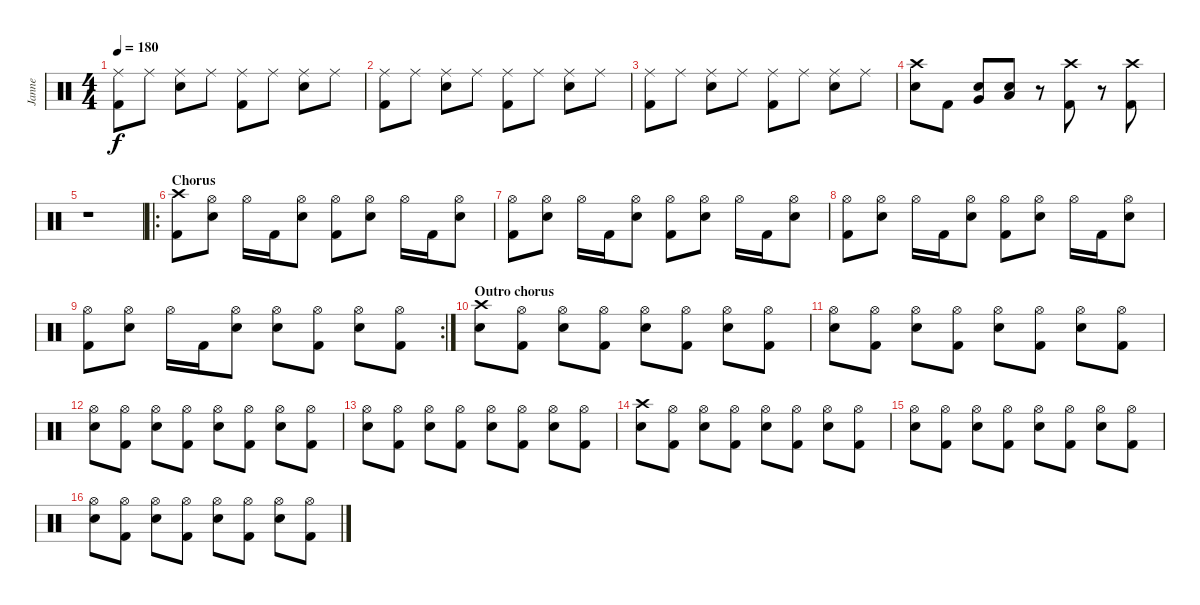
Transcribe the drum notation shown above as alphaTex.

\track ("Janne" "Janne") {instrument percussion}
\staff {score}
\articulation defaults
\ts (4 4)
\tempo 180
\clef neutral
\ks c
("Ride (middle)" "Kick (hit) 2").8{dy f} "Ride (middle)".8 ("Ride (middle)" "Electric Snare (hit)").8 "Ride (middle)".8 ("Ride (middle)" "Kick (hit) 2").8 "Ride (middle)".8 ("Ride (middle)" "Electric Snare (hit)").8 "Ride (middle)".8 |
("Ride (middle)" "Kick (hit) 2").8 "Ride (middle)".8 ("Ride (middle)" "Electric Snare (hit)").8 "Ride (middle)".8 ("Ride (middle)" "Kick (hit) 2").8 "Ride (middle)".8 ("Ride (middle)" "Electric Snare (hit)").8 "Ride (middle)".8 |
("Ride (middle)" "Kick (hit) 2").8 "Ride (middle)".8 ("Ride (middle)" "Electric Snare (hit)").8 "Ride (middle)".8 ("Ride (middle)" "Kick (hit) 2").8 "Ride (middle)".8 ("Ride (middle)" "Electric Snare (hit)").8 "Ride (middle)".8 |
("Crash high (hit)" "Electric Snare (hit)").8 "Kick (hit) 2".8 ("Very Low Tom (hit)" "Electric Snare (hit)").8 ("Low Floor Tom (hit)" "Electric Snare (hit)").8 r.8 ("Crash high (hit)" "Kick (hit) 2").8 r.8 ("Crash high (hit)" "Kick (hit) 2").8 |
r.1 |
\ro
\section ("" "Chorus")
("Crash high (hit)" "Kick (hit) 2").8 ("Hi-Hat (open)" "Electric Snare (hit)").8 "Hi-Hat (open)".16 "Kick (hit) 2".16 ("Hi-Hat (open)" "Electric Snare (hit)").8 ("Hi-Hat (open)" "Kick (hit) 2").8 ("Hi-Hat (open)" "Electric Snare (hit)").8 "Hi-Hat (open)".16 "Kick (hit) 2".16 ("Hi-Hat (open)" "Electric Snare (hit)").8 |
("Hi-Hat (open)" "Kick (hit) 2").8 ("Hi-Hat (open)" "Electric Snare (hit)").8 "Hi-Hat (open)".16 "Kick (hit) 2".16 ("Hi-Hat (open)" "Electric Snare (hit)").8 ("Hi-Hat (open)" "Kick (hit) 2").8 ("Hi-Hat (open)" "Electric Snare (hit)").8 "Hi-Hat (open)".16 "Kick (hit) 2".16 ("Hi-Hat (open)" "Electric Snare (hit)").8 |
("Hi-Hat (open)" "Kick (hit) 2").8 ("Hi-Hat (open)" "Electric Snare (hit)").8 "Hi-Hat (open)".16 "Kick (hit) 2".16 ("Hi-Hat (open)" "Electric Snare (hit)").8 ("Hi-Hat (open)" "Kick (hit) 2").8 ("Hi-Hat (open)" "Electric Snare (hit)").8 "Hi-Hat (open)".16 "Kick (hit) 2".16 ("Hi-Hat (open)" "Electric Snare (hit)").8 |
\rc 2
("Hi-Hat (open)" "Kick (hit) 2").8 ("Hi-Hat (open)" "Electric Snare (hit)").8 "Hi-Hat (open)".16 "Kick (hit) 2".16 ("Hi-Hat (open)" "Electric Snare (hit)").8 ("Hi-Hat (open)" "Electric Snare (hit)").8 ("Hi-Hat (open)" "Kick (hit) 2").8 ("Hi-Hat (open)" "Electric Snare (hit)").8 ("Hi-Hat (open)" "Kick (hit) 2").8 |
\section ("" "Outro chorus")
("Crash high (hit)" "Electric Snare (hit)").8 ("Hi-Hat (open)" "Kick (hit) 2").8 ("Hi-Hat (open)" "Electric Snare (hit)").8 ("Hi-Hat (open)" "Kick (hit) 2").8 ("Hi-Hat (open)" "Electric Snare (hit)").8 ("Hi-Hat (open)" "Kick (hit) 2").8 ("Hi-Hat (open)" "Electric Snare (hit)").8 ("Hi-Hat (open)" "Kick (hit) 2").8 |
("Hi-Hat (open)" "Electric Snare (hit)").8 ("Hi-Hat (open)" "Kick (hit) 2").8 ("Hi-Hat (open)" "Electric Snare (hit)").8 ("Hi-Hat (open)" "Kick (hit) 2").8 ("Hi-Hat (open)" "Electric Snare (hit)").8 ("Hi-Hat (open)" "Kick (hit) 2").8 ("Hi-Hat (open)" "Electric Snare (hit)").8 ("Hi-Hat (open)" "Kick (hit) 2").8 |
("Hi-Hat (open)" "Electric Snare (hit)").8 ("Hi-Hat (open)" "Kick (hit) 2").8 ("Hi-Hat (open)" "Electric Snare (hit)").8 ("Hi-Hat (open)" "Kick (hit) 2").8 ("Hi-Hat (open)" "Electric Snare (hit)").8 ("Hi-Hat (open)" "Kick (hit) 2").8 ("Hi-Hat (open)" "Electric Snare (hit)").8 ("Hi-Hat (open)" "Kick (hit) 2").8 |
("Hi-Hat (open)" "Electric Snare (hit)").8 ("Hi-Hat (open)" "Kick (hit) 2").8 ("Hi-Hat (open)" "Electric Snare (hit)").8 ("Hi-Hat (open)" "Kick (hit) 2").8 ("Hi-Hat (open)" "Electric Snare (hit)").8 ("Hi-Hat (open)" "Kick (hit) 2").8 ("Hi-Hat (open)" "Electric Snare (hit)").8 ("Hi-Hat (open)" "Kick (hit) 2").8 |
("Crash high (hit)" "Electric Snare (hit)").8 ("Hi-Hat (open)" "Kick (hit) 2").8 ("Hi-Hat (open)" "Electric Snare (hit)").8 ("Hi-Hat (open)" "Kick (hit) 2").8 ("Hi-Hat (open)" "Electric Snare (hit)").8 ("Hi-Hat (open)" "Kick (hit) 2").8 ("Hi-Hat (open)" "Electric Snare (hit)").8 ("Hi-Hat (open)" "Kick (hit) 2").8 |
("Hi-Hat (open)" "Electric Snare (hit)").8 ("Hi-Hat (open)" "Kick (hit) 2").8 ("Hi-Hat (open)" "Electric Snare (hit)").8 ("Hi-Hat (open)" "Kick (hit) 2").8 ("Hi-Hat (open)" "Electric Snare (hit)").8 ("Hi-Hat (open)" "Kick (hit) 2").8 ("Hi-Hat (open)" "Electric Snare (hit)").8 ("Hi-Hat (open)" "Kick (hit) 2").8 |
("Hi-Hat (open)" "Electric Snare (hit)").8 ("Hi-Hat (open)" "Kick (hit) 2").8 ("Hi-Hat (open)" "Electric Snare (hit)").8 ("Hi-Hat (open)" "Kick (hit) 2").8 ("Hi-Hat (open)" "Electric Snare (hit)").8 ("Hi-Hat (open)" "Kick (hit) 2").8 ("Hi-Hat (open)" "Electric Snare (hit)").8 ("Hi-Hat (open)" "Kick (hit) 2").8
